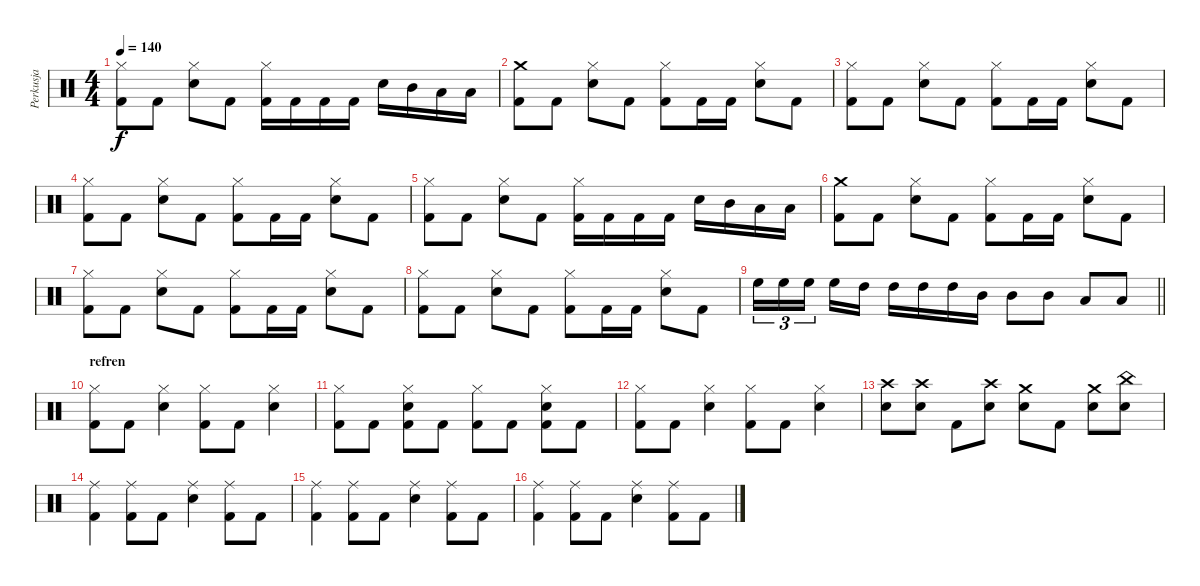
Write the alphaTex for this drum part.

\track ("Perkusja" "Perkusja") {instrument percussion}
\staff {score}
\articulation defaults
\ts (4 4)
\tempo 140
\clef neutral
\ks c
("Hi-Hat (closed)" "Kick (hit) 2").8{dy f} "Kick (hit) 2".8 ("Hi-Hat (closed)" "Snare (hit) 2").8 "Kick (hit) 2".8 ("Hi-Hat (closed)" "Kick (hit) 2").16 "Kick (hit) 2".16 "Kick (hit) 2".16 "Kick (hit) 2".16 "Snare (hit) 2".16 "Mid Tom (hit)".16 "Low Tom (hit)".16 "Low Tom (hit)".16 |
("Crash medium (hit)" "Kick (hit) 2").8 "Kick (hit) 2".8 ("Hi-Hat (closed)" "Snare (hit) 2").8 "Kick (hit) 2".8 ("Hi-Hat (closed)" "Kick (hit) 2").8 "Kick (hit) 2".16 "Kick (hit) 2".16 ("Hi-Hat (closed)" "Snare (hit) 2").8 "Kick (hit) 2".8 |
("Hi-Hat (closed)" "Kick (hit) 2").8 "Kick (hit) 2".8 ("Hi-Hat (closed)" "Snare (hit) 2").8 "Kick (hit) 2".8 ("Hi-Hat (closed)" "Kick (hit) 2").8 "Kick (hit) 2".16 "Kick (hit) 2".16 ("Hi-Hat (closed)" "Snare (hit) 2").8 "Kick (hit) 2".8 |
("Hi-Hat (closed)" "Kick (hit) 2").8 "Kick (hit) 2".8 ("Hi-Hat (closed)" "Snare (hit) 2").8 "Kick (hit) 2".8 ("Hi-Hat (closed)" "Kick (hit) 2").8 "Kick (hit) 2".16 "Kick (hit) 2".16 ("Hi-Hat (closed)" "Snare (hit) 2").8 "Kick (hit) 2".8 |
("Hi-Hat (closed)" "Kick (hit) 2").8 "Kick (hit) 2".8 ("Hi-Hat (closed)" "Snare (hit) 2").8 "Kick (hit) 2".8 ("Hi-Hat (closed)" "Kick (hit) 2").16 "Kick (hit) 2".16 "Kick (hit) 2".16 "Kick (hit) 2".16 "Snare (hit) 2".16 "Mid Tom (hit)".16 "Low Tom (hit)".16 "Low Tom (hit)".16 |
("Crash medium (hit)" "Kick (hit) 2").8 "Kick (hit) 2".8 ("Hi-Hat (closed)" "Snare (hit) 2").8 "Kick (hit) 2".8 ("Hi-Hat (closed)" "Kick (hit) 2").8 "Kick (hit) 2".16 "Kick (hit) 2".16 ("Hi-Hat (closed)" "Snare (hit) 2").8 "Kick (hit) 2".8 |
("Hi-Hat (closed)" "Kick (hit) 2").8 "Kick (hit) 2".8 ("Hi-Hat (closed)" "Snare (hit) 2").8 "Kick (hit) 2".8 ("Hi-Hat (closed)" "Kick (hit) 2").8 "Kick (hit) 2".16 "Kick (hit) 2".16 ("Hi-Hat (closed)" "Snare (hit) 2").8 "Kick (hit) 2".8 |
("Hi-Hat (closed)" "Kick (hit) 2").8 "Kick (hit) 2".8 ("Hi-Hat (closed)" "Snare (hit) 2").8 "Kick (hit) 2".8 ("Hi-Hat (closed)" "Kick (hit) 2").8 "Kick (hit) 2".16 "Kick (hit) 2".16 ("Hi-Hat (closed)" "Snare (hit) 2").8 "Kick (hit) 2".8 |
\barLineRight lightlight "High Floor Tom (hit)".16{tu (3 2)} "High Floor Tom (hit)".16{tu (3 2)} "High Floor Tom (hit)".16{tu (3 2) beam splitsecondary} "High Floor Tom (hit)".16 "High Tom (hit)".16 "High Tom (hit)".16 "High Tom (hit)".16 "High Tom (hit)".16 "Mid Tom (hit)".16 "Mid Tom (hit)".8 "Mid Tom (hit)".8 "Low Tom (hit)".8 "Low Tom (hit)".8
|
\section ("" "refren")
("Hi-Hat (closed)" "Kick (hit) 2").8 "Kick (hit) 2".8 ("Hi-Hat (closed)" "Snare (hit) 2").4 ("Hi-Hat (closed)" "Kick (hit) 2").8 "Kick (hit) 2".8 ("Hi-Hat (closed)" "Snare (hit) 2").4 |
("Hi-Hat (closed)" "Kick (hit) 2").8 "Kick (hit) 2".8 ("Hi-Hat (closed)" "Kick (hit) 2" "Snare (hit) 2").8 "Kick (hit) 2".8 ("Hi-Hat (closed)" "Kick (hit) 2").8 "Kick (hit) 2".8 ("Hi-Hat (closed)" "Kick (hit) 2" "Snare (hit) 2").8 "Kick (hit) 2".8 |
("Hi-Hat (closed)" "Kick (hit) 2").8 "Kick (hit) 2".8 ("Hi-Hat (closed)" "Snare (hit) 2").4 ("Hi-Hat (closed)" "Kick (hit) 2").8 "Kick (hit) 2".8 ("Hi-Hat (closed)" "Snare (hit) 2").4 |
("Snare (hit) 2" "Crash high (hit)").8 ("Snare (hit) 2" "Crash high (hit)").8 "Kick (hit) 2".8 ("Snare (hit) 2" "Crash high (hit)").8 ("Snare (hit) 2" "Crash medium (hit)").8 "Kick (hit) 2".8 ("Snare (hit) 2" "Crash medium (hit)").8 ("Snare (hit) 2" "China (hit)").8 |
("Ride (middle)" "Kick (hit) 2").4 ("Ride (middle)" "Kick (hit) 2").8 "Kick (hit) 2".8 ("Ride (middle)" "Snare (hit) 2").4 ("Ride (middle)" "Kick (hit) 2").8 "Kick (hit) 2".8 |
("Ride (middle)" "Kick (hit) 2").4 ("Ride (middle)" "Kick (hit) 2").8 "Kick (hit) 2".8 ("Ride (middle)" "Snare (hit) 2").4 ("Ride (middle)" "Kick (hit) 2").8 "Kick (hit) 2".8 |
("Ride (middle)" "Kick (hit) 2").4 ("Ride (middle)" "Kick (hit) 2").8 "Kick (hit) 2".8 ("Ride (middle)" "Snare (hit) 2").4 ("Ride (middle)" "Kick (hit) 2").8 "Kick (hit) 2".8
